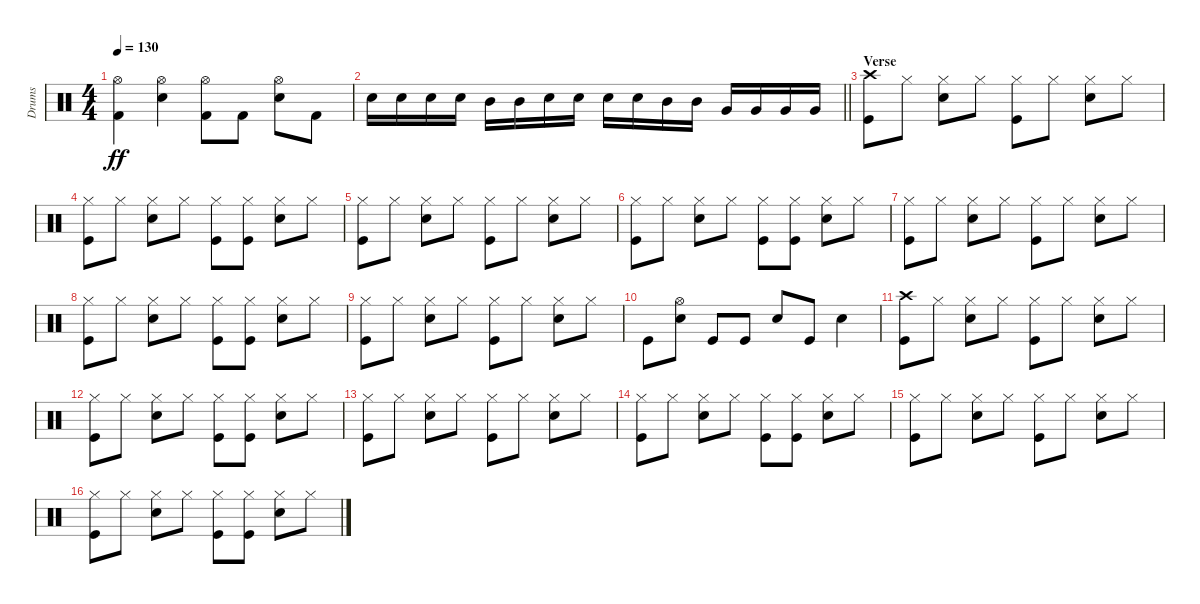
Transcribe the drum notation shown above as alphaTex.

\track ("Drums" "Drums") {instrument percussion}
\staff {score}
\articulation defaults
\ts (4 4)
\tempo 130
\clef neutral
\ks c
("Hi-Hat (open)" "Kick (hit) 2").4{dy ff} ("Hi-Hat (open)" "Snare (hit) 2").4 ("Hi-Hat (open)" "Kick (hit) 2").8 "Kick (hit) 2".8 ("Hi-Hat (open)" "Snare (hit) 2").8 "Kick (hit) 2".8 |
\barLineRight lightlight "Snare (hit) 2".16 "Snare (hit) 2".16 "Snare (hit) 2".16 "Snare (hit) 2".16 "Mid Tom (hit)".16 "Mid Tom (hit)".16 "Snare (hit) 2".16 "Snare (hit) 2".16 "Snare (hit) 2".16 "Snare (hit) 2".16 "Mid Tom (hit)".16 "Mid Tom (hit)".16 "Very Low Tom (hit)".16 "Very Low Tom (hit)".16 "Very Low Tom (hit)".16 "Very Low Tom (hit)".16
|
\section ("" "Verse")
("Crash high (hit)" "Kick (hit)").8 "Hi-Hat (closed)".8 ("Hi-Hat (closed)" "Snare (hit) 2").8 "Hi-Hat (closed)".8 ("Hi-Hat (closed)" "Kick (hit)").8 "Hi-Hat (closed)".8 ("Hi-Hat (closed)" "Snare (hit) 2").8 "Hi-Hat (closed)".8 |
("Hi-Hat (closed)" "Kick (hit)").8 "Hi-Hat (closed)".8 ("Hi-Hat (closed)" "Snare (hit) 2").8 "Hi-Hat (closed)".8 ("Hi-Hat (closed)" "Kick (hit)").8 ("Hi-Hat (closed)" "Kick (hit)").8 ("Hi-Hat (closed)" "Snare (hit) 2").8 "Hi-Hat (closed)".8 |
("Hi-Hat (closed)" "Kick (hit)").8 "Hi-Hat (closed)".8 ("Hi-Hat (closed)" "Snare (hit) 2").8 "Hi-Hat (closed)".8 ("Hi-Hat (closed)" "Kick (hit)").8 "Hi-Hat (closed)".8 ("Hi-Hat (closed)" "Snare (hit) 2").8 "Hi-Hat (closed)".8 |
("Hi-Hat (closed)" "Kick (hit)").8 "Hi-Hat (closed)".8 ("Hi-Hat (closed)" "Snare (hit) 2").8 "Hi-Hat (closed)".8 ("Hi-Hat (closed)" "Kick (hit)").8 ("Hi-Hat (closed)" "Kick (hit)").8 ("Hi-Hat (closed)" "Snare (hit) 2").8 "Hi-Hat (closed)".8 |
("Hi-Hat (closed)" "Kick (hit)").8 "Hi-Hat (closed)".8 ("Hi-Hat (closed)" "Snare (hit) 2").8 "Hi-Hat (closed)".8 ("Hi-Hat (closed)" "Kick (hit)").8 "Hi-Hat (closed)".8 ("Hi-Hat (closed)" "Snare (hit) 2").8 "Hi-Hat (closed)".8 |
("Hi-Hat (closed)" "Kick (hit)").8 "Hi-Hat (closed)".8 ("Hi-Hat (closed)" "Snare (hit) 2").8 "Hi-Hat (closed)".8 ("Hi-Hat (closed)" "Kick (hit)").8 ("Hi-Hat (closed)" "Kick (hit)").8 ("Hi-Hat (closed)" "Snare (hit) 2").8 "Hi-Hat (closed)".8 |
("Hi-Hat (closed)" "Kick (hit)").8 "Hi-Hat (closed)".8 ("Hi-Hat (closed)" "Snare (hit) 2").8 "Hi-Hat (closed)".8 ("Hi-Hat (closed)" "Kick (hit)").8 "Hi-Hat (closed)".8 ("Hi-Hat (closed)" "Snare (hit) 2").8 "Hi-Hat (closed)".8 |
"Kick (hit)".8 ("Hi-Hat (open)" "Snare (hit) 2").8 "Kick (hit)".8 "Kick (hit)".8 "Snare (hit) 2".8 "Kick (hit)".8 "Snare (hit) 2".4 |
("Crash high (hit)" "Kick (hit)").8 "Hi-Hat (closed)".8 ("Hi-Hat (closed)" "Snare (hit) 2").8 "Hi-Hat (closed)".8 ("Hi-Hat (closed)" "Kick (hit)").8 "Hi-Hat (closed)".8 ("Hi-Hat (closed)" "Snare (hit) 2").8 "Hi-Hat (closed)".8 |
("Hi-Hat (closed)" "Kick (hit)").8 "Hi-Hat (closed)".8 ("Hi-Hat (closed)" "Snare (hit) 2").8 "Hi-Hat (closed)".8 ("Hi-Hat (closed)" "Kick (hit)").8 ("Hi-Hat (closed)" "Kick (hit)").8 ("Hi-Hat (closed)" "Snare (hit) 2").8 "Hi-Hat (closed)".8 |
("Hi-Hat (closed)" "Kick (hit)").8 "Hi-Hat (closed)".8 ("Hi-Hat (closed)" "Snare (hit) 2").8 "Hi-Hat (closed)".8 ("Hi-Hat (closed)" "Kick (hit)").8 "Hi-Hat (closed)".8 ("Hi-Hat (closed)" "Snare (hit) 2").8 "Hi-Hat (closed)".8 |
("Hi-Hat (closed)" "Kick (hit)").8 "Hi-Hat (closed)".8 ("Hi-Hat (closed)" "Snare (hit) 2").8 "Hi-Hat (closed)".8 ("Hi-Hat (closed)" "Kick (hit)").8 ("Hi-Hat (closed)" "Kick (hit)").8 ("Hi-Hat (closed)" "Snare (hit) 2").8 "Hi-Hat (closed)".8 |
("Hi-Hat (closed)" "Kick (hit)").8 "Hi-Hat (closed)".8 ("Hi-Hat (closed)" "Snare (hit) 2").8 "Hi-Hat (closed)".8 ("Hi-Hat (closed)" "Kick (hit)").8 "Hi-Hat (closed)".8 ("Hi-Hat (closed)" "Snare (hit) 2").8 "Hi-Hat (closed)".8 |
("Hi-Hat (closed)" "Kick (hit)").8 "Hi-Hat (closed)".8 ("Hi-Hat (closed)" "Snare (hit) 2").8 "Hi-Hat (closed)".8 ("Hi-Hat (closed)" "Kick (hit)").8 ("Hi-Hat (closed)" "Kick (hit)").8 ("Hi-Hat (closed)" "Snare (hit) 2").8 "Hi-Hat (closed)".8
